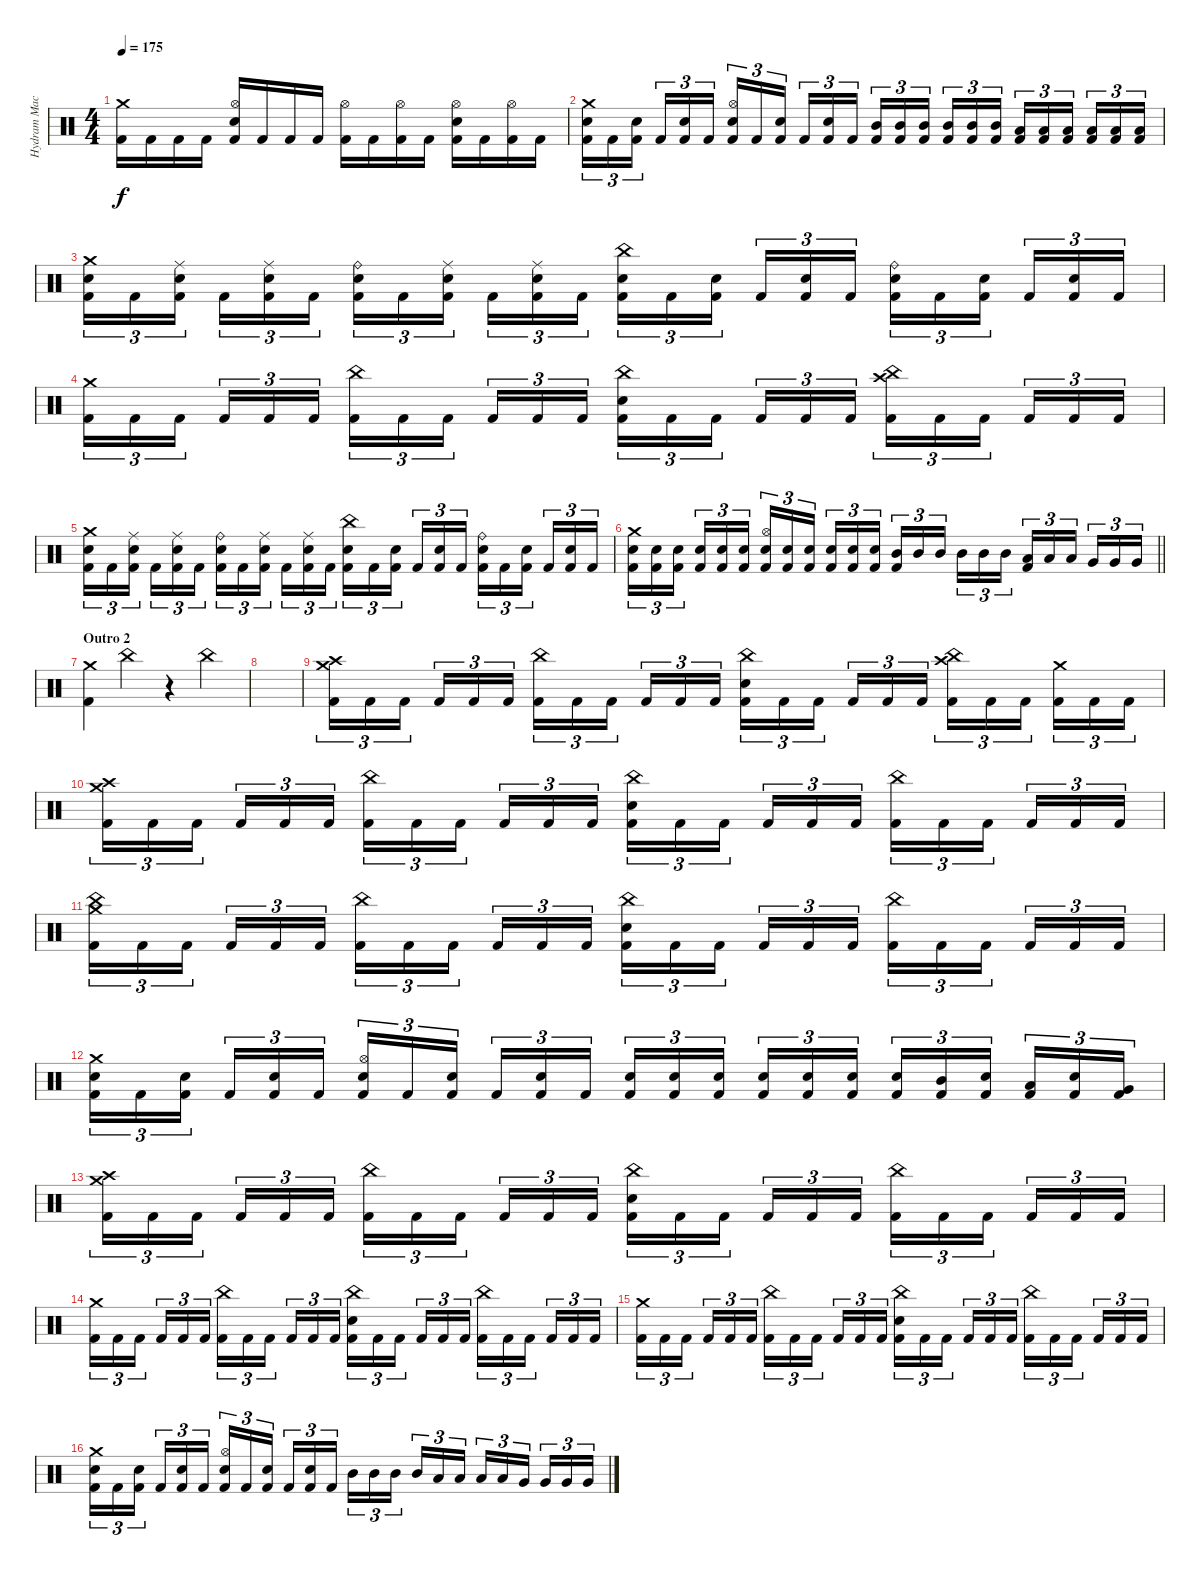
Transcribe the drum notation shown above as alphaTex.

\track ("Hydram Machine" "Hydram Mac") {instrument percussion}
\staff {score}
\articulation defaults
\ts (4 4)
\tempo 175
\clef neutral
\ks c
("Crash medium (hit)" "Kick (hit) 2").16{dy f} "Kick (hit) 2".16 "Kick (hit) 2".16 "Kick (hit) 2".16 ("Hi-Hat (open)" "Electric Snare (hit)" "Kick (hit) 2").16 "Kick (hit) 2".16 "Kick (hit) 2".16 "Kick (hit) 2".16 ("Hi-Hat (open)" "Kick (hit) 2").16 "Kick (hit) 2".16 ("Hi-Hat (open)" "Kick (hit) 2").16 "Kick (hit) 2".16 ("Hi-Hat (open)" "Electric Snare (hit)" "Kick (hit) 2").16 "Kick (hit) 2".16 ("Hi-Hat (open)" "Kick (hit) 2").16 "Kick (hit) 2".16 |
("Crash medium (hit)" "Electric Snare (hit)" "Kick (hit) 2").16{tu (3 2)} "Kick (hit) 2".16{tu (3 2)} ("Electric Snare (hit)" "Kick (hit) 2").16{tu (3 2) beam splitsecondary} "Kick (hit) 2".16{tu (3 2)} ("Electric Snare (hit)" "Kick (hit) 2").16{tu (3 2)} "Kick (hit) 2".16{tu (3 2)} ("Hi-Hat (open)" "Electric Snare (hit)" "Kick (hit) 2").16{tu (3 2)} "Kick (hit) 2".16{tu (3 2)} ("Electric Snare (hit)" "Kick (hit) 2").16{tu (3 2) beam splitsecondary} "Kick (hit) 2".16{tu (3 2)} ("Electric Snare (hit)" "Kick (hit) 2").16{tu (3 2)} "Kick (hit) 2".16{tu (3 2)} ("Mid Tom (hit)" "Kick (hit) 2").16{tu (3 2)} ("Mid Tom (hit)" "Kick (hit) 2").16{tu (3 2)} ("Mid Tom (hit)" "Kick (hit) 2").16{tu (3 2) beam splitsecondary} ("Mid Tom (hit)" "Kick (hit) 2").16{tu (3 2)} ("Mid Tom (hit)" "Kick (hit) 2").16{tu (3 2)} ("Mid Tom (hit)" "Kick (hit) 2").16{tu (3 2)} ("Low Tom (hit)" "Kick (hit) 2").16{tu (3 2)} ("Low Tom (hit)" "Kick (hit) 2").16{tu (3 2)} ("Low Tom (hit)" "Kick (hit) 2").16{tu (3 2) beam splitsecondary} ("Low Tom (hit)" "Kick (hit) 2").16{tu (3 2)} ("Low Tom (hit)" "Kick (hit) 2").16{tu (3 2)} ("Low Tom (hit)" "Kick (hit) 2").16{tu (3 2)} |
("Crash medium (hit)" "Electric Snare (hit)" "Kick (hit) 2").16{tu (3 2)} "Kick (hit) 2".16{tu (3 2)} ("Ride (middle)" "Electric Snare (hit)" "Kick (hit) 2").16{tu (3 2) beam splitsecondary} "Kick (hit) 2".16{tu (3 2)} ("Ride (middle)" "Electric Snare (hit)" "Kick (hit) 2").16{tu (3 2)} "Kick (hit) 2".16{tu (3 2)} ("Ride (bell)" "Electric Snare (hit)" "Kick (hit) 2").16{tu (3 2)} "Kick (hit) 2".16{tu (3 2)} ("Ride (middle)" "Electric Snare (hit)" "Kick (hit) 2").16{tu (3 2) beam splitsecondary} "Kick (hit) 2".16{tu (3 2)} ("Ride (middle)" "Electric Snare (hit)" "Kick (hit) 2").16{tu (3 2)} "Kick (hit) 2".16{tu (3 2)} ("China (hit)" "Electric Snare (hit)" "Kick (hit) 2").16{tu (3 2)} "Kick (hit) 2".16{tu (3 2)} ("Electric Snare (hit)" "Kick (hit) 2").16{tu (3 2) beam splitsecondary} "Kick (hit) 2".16{tu (3 2)} ("Electric Snare (hit)" "Kick (hit) 2").16{tu (3 2)} "Kick (hit) 2".16{tu (3 2)} ("Ride (bell)" "Electric Snare (hit)" "Kick (hit) 2").16{tu (3 2)} "Kick (hit) 2".16{tu (3 2)} ("Electric Snare (hit)" "Kick (hit) 2").16{tu (3 2) beam splitsecondary} "Kick (hit) 2".16{tu (3 2)} ("Electric Snare (hit)" "Kick (hit) 2").16{tu (3 2)} "Kick (hit) 2".16{tu (3 2)} |
("Crash medium (hit)" "Kick (hit) 2").16{tu (3 2)} "Kick (hit) 2".16{tu (3 2)} "Kick (hit) 2".16{tu (3 2) beam splitsecondary} "Kick (hit) 2".16{tu (3 2)} "Kick (hit) 2".16{tu (3 2)} "Kick (hit) 2".16{tu (3 2)} ("China (hit)" "Kick (hit) 2").16{tu (3 2)} "Kick (hit) 2".16{tu (3 2)} "Kick (hit) 2".16{tu (3 2) beam splitsecondary} "Kick (hit) 2".16{tu (3 2)} "Kick (hit) 2".16{tu (3 2)} "Kick (hit) 2".16{tu (3 2)} ("China (hit)" "Electric Snare (hit)" "Kick (hit) 2").16{tu (3 2)} "Kick (hit) 2".16{tu (3 2)} "Kick (hit) 2".16{tu (3 2) beam splitsecondary} "Kick (hit) 2".16{tu (3 2)} "Kick (hit) 2".16{tu (3 2)} "Kick (hit) 2".16{tu (3 2)} ("China (hit)" "Crash high (hit)" "Kick (hit) 2").16{tu (3 2)} "Kick (hit) 2".16{tu (3 2)} "Kick (hit) 2".16{tu (3 2) beam splitsecondary} "Kick (hit) 2".16{tu (3 2)} "Kick (hit) 2".16{tu (3 2)} "Kick (hit) 2".16{tu (3 2)} |
("Crash medium (hit)" "Electric Snare (hit)" "Kick (hit) 2").16{tu (3 2)} "Kick (hit) 2".16{tu (3 2)} ("Ride (middle)" "Electric Snare (hit)" "Kick (hit) 2").16{tu (3 2) beam splitsecondary} "Kick (hit) 2".16{tu (3 2)} ("Ride (middle)" "Electric Snare (hit)" "Kick (hit) 2").16{tu (3 2)} "Kick (hit) 2".16{tu (3 2)} ("Ride (bell)" "Electric Snare (hit)" "Kick (hit) 2").16{tu (3 2)} "Kick (hit) 2".16{tu (3 2)} ("Ride (middle)" "Electric Snare (hit)" "Kick (hit) 2").16{tu (3 2) beam splitsecondary} "Kick (hit) 2".16{tu (3 2)} ("Ride (middle)" "Electric Snare (hit)" "Kick (hit) 2").16{tu (3 2)} "Kick (hit) 2".16{tu (3 2)} ("China (hit)" "Electric Snare (hit)" "Kick (hit) 2").16{tu (3 2)} "Kick (hit) 2".16{tu (3 2)} ("Electric Snare (hit)" "Kick (hit) 2").16{tu (3 2) beam splitsecondary} "Kick (hit) 2".16{tu (3 2)} ("Electric Snare (hit)" "Kick (hit) 2").16{tu (3 2)} "Kick (hit) 2".16{tu (3 2)} ("Ride (bell)" "Electric Snare (hit)" "Kick (hit) 2").16{tu (3 2)} "Kick (hit) 2".16{tu (3 2)} ("Electric Snare (hit)" "Kick (hit) 2").16{tu (3 2) beam splitsecondary} "Kick (hit) 2".16{tu (3 2)} ("Electric Snare (hit)" "Kick (hit) 2").16{tu (3 2)} "Kick (hit) 2".16{tu (3 2)} |
\barLineRight lightlight
("Crash medium (hit)" "Electric Snare (hit)" "Kick (hit) 2").16{tu (3 2)} ("Electric Snare (hit)" "Kick (hit) 2").16{tu (3 2)} ("Electric Snare (hit)" "Kick (hit) 2").16{tu (3 2) beam splitsecondary} ("Electric Snare (hit)" "Kick (hit) 2").16{tu (3 2)} ("Electric Snare (hit)" "Kick (hit) 2").16{tu (3 2)} ("Electric Snare (hit)" "Kick (hit) 2").16{tu (3 2)} ("Hi-Hat (open)" "Electric Snare (hit)" "Kick (hit) 2").16{tu (3 2)} ("Electric Snare (hit)" "Kick (hit) 2").16{tu (3 2)} ("Electric Snare (hit)" "Kick (hit) 2").16{tu (3 2) beam splitsecondary} ("Electric Snare (hit)" "Kick (hit) 2").16{tu (3 2)} ("Electric Snare (hit)" "Kick (hit) 2").16{tu (3 2)} ("Electric Snare (hit)" "Kick (hit) 2").16{tu (3 2)} ("Mid Tom (hit)" "Kick (hit) 2").16{tu (3 2)} "Mid Tom (hit)".16{tu (3 2)} "Mid Tom (hit)".16{tu (3 2) beam splitsecondary} "Mid Tom (hit)".16{tu (3 2)} "Mid Tom (hit)".16{tu (3 2)} "Mid Tom (hit)".16{tu (3 2)} ("Low Tom (hit)" "Kick (hit) 2").16{tu (3 2)} "Low Tom (hit)".16{tu (3 2)} "Low Tom (hit)".16{tu (3 2) beam splitsecondary} "Very Low Tom (hit)".16{tu (3 2)} "Very Low Tom (hit)".16{tu (3 2)} "Very Low Tom (hit)".16{tu (3 2)} |
\section ("" "Outro 2")
("Crash medium (hit)" "Kick (hit) 2").4 "China (hit)".4 r.4 "China (hit)".4 |
|
("Crash medium (hit)" "Crash high (hit)" "Kick (hit) 2").16{tu (3 2)} "Kick (hit) 2".16{tu (3 2)} "Kick (hit) 2".16{tu (3 2) beam splitsecondary} "Kick (hit) 2".16{tu (3 2)} "Kick (hit) 2".16{tu (3 2)} "Kick (hit) 2".16{tu (3 2)} ("China (hit)" "Kick (hit) 2").16{tu (3 2)} "Kick (hit) 2".16{tu (3 2)} "Kick (hit) 2".16{tu (3 2) beam splitsecondary} "Kick (hit) 2".16{tu (3 2)} "Kick (hit) 2".16{tu (3 2)} "Kick (hit) 2".16{tu (3 2)} ("China (hit)" "Electric Snare (hit)" "Kick (hit) 2").16{tu (3 2)} "Kick (hit) 2".16{tu (3 2)} "Kick (hit) 2".16{tu (3 2) beam splitsecondary} "Kick (hit) 2".16{tu (3 2)} "Kick (hit) 2".16{tu (3 2)} "Kick (hit) 2".16{tu (3 2)} ("China (hit)" "Crash high (hit)" "Kick (hit) 2").16{tu (3 2)} "Kick (hit) 2".16{tu (3 2)} "Kick (hit) 2".16{tu (3 2) beam splitsecondary} ("Crash medium (hit)" "Kick (hit) 2").16{tu (3 2)} "Kick (hit) 2".16{tu (3 2)} "Kick (hit) 2".16{tu (3 2)} |
("Crash medium (hit)" "Crash high (hit)" "Kick (hit) 2").16{tu (3 2)} "Kick (hit) 2".16{tu (3 2)} "Kick (hit) 2".16{tu (3 2) beam splitsecondary} "Kick (hit) 2".16{tu (3 2)} "Kick (hit) 2".16{tu (3 2)} "Kick (hit) 2".16{tu (3 2)} ("China (hit)" "Kick (hit) 2").16{tu (3 2)} "Kick (hit) 2".16{tu (3 2)} "Kick (hit) 2".16{tu (3 2) beam splitsecondary} "Kick (hit) 2".16{tu (3 2)} "Kick (hit) 2".16{tu (3 2)} "Kick (hit) 2".16{tu (3 2)} ("China (hit)" "Electric Snare (hit)" "Kick (hit) 2").16{tu (3 2)} "Kick (hit) 2".16{tu (3 2)} "Kick (hit) 2".16{tu (3 2) beam splitsecondary} "Kick (hit) 2".16{tu (3 2)} "Kick (hit) 2".16{tu (3 2)} "Kick (hit) 2".16{tu (3 2)} ("China (hit)" "Kick (hit) 2").16{tu (3 2)} "Kick (hit) 2".16{tu (3 2)} "Kick (hit) 2".16{tu (3 2) beam splitsecondary} "Kick (hit) 2".16{tu (3 2)} "Kick (hit) 2".16{tu (3 2)} "Kick (hit) 2".16{tu (3 2)} |
("Crash medium (hit)" "China (hit)" "Kick (hit) 2").16{tu (3 2)} "Kick (hit) 2".16{tu (3 2)} "Kick (hit) 2".16{tu (3 2) beam splitsecondary} "Kick (hit) 2".16{tu (3 2)} "Kick (hit) 2".16{tu (3 2)} "Kick (hit) 2".16{tu (3 2)} ("China (hit)" "Kick (hit) 2").16{tu (3 2)} "Kick (hit) 2".16{tu (3 2)} "Kick (hit) 2".16{tu (3 2) beam splitsecondary} "Kick (hit) 2".16{tu (3 2)} "Kick (hit) 2".16{tu (3 2)} "Kick (hit) 2".16{tu (3 2)} ("China (hit)" "Electric Snare (hit)" "Kick (hit) 2").16{tu (3 2)} "Kick (hit) 2".16{tu (3 2)} "Kick (hit) 2".16{tu (3 2) beam splitsecondary} "Kick (hit) 2".16{tu (3 2)} "Kick (hit) 2".16{tu (3 2)} "Kick (hit) 2".16{tu (3 2)} ("China (hit)" "Kick (hit) 2").16{tu (3 2)} "Kick (hit) 2".16{tu (3 2)} "Kick (hit) 2".16{tu (3 2) beam splitsecondary} "Kick (hit) 2".16{tu (3 2)} "Kick (hit) 2".16{tu (3 2)} "Kick (hit) 2".16{tu (3 2)} |
("Crash medium (hit)" "Electric Snare (hit)" "Kick (hit) 2").16{tu (3 2)} "Kick (hit) 2".16{tu (3 2)} ("Electric Snare (hit)" "Kick (hit) 2").16{tu (3 2) beam splitsecondary} "Kick (hit) 2".16{tu (3 2)} ("Electric Snare (hit)" "Kick (hit) 2").16{tu (3 2)} "Kick (hit) 2".16{tu (3 2)} ("Hi-Hat (open)" "Electric Snare (hit)" "Kick (hit) 2").16{tu (3 2)} "Kick (hit) 2".16{tu (3 2)} ("Electric Snare (hit)" "Kick (hit) 2").16{tu (3 2) beam splitsecondary} "Kick (hit) 2".16{tu (3 2)} ("Electric Snare (hit)" "Kick (hit) 2").16{tu (3 2)} "Kick (hit) 2".16{tu (3 2)} ("Electric Snare (hit)" "Kick (hit) 2").16{tu (3 2)} ("Electric Snare (hit)" "Kick (hit) 2").16{tu (3 2)} ("Electric Snare (hit)" "Kick (hit) 2").16{tu (3 2) beam splitsecondary} ("Electric Snare (hit)" "Kick (hit) 2").16{tu (3 2)} ("Electric Snare (hit)" "Kick (hit) 2").16{tu (3 2)} ("Electric Snare (hit)" "Kick (hit) 2").16{tu (3 2)} ("Electric Snare (hit)" "Kick (hit) 2").16{tu (3 2)} ("Mid Tom (hit)" "Kick (hit) 2").16{tu (3 2)} ("Electric Snare (hit)" "Kick (hit) 2").16{tu (3 2) beam splitsecondary} ("Low Tom (hit)" "Kick (hit) 2").16{tu (3 2)} ("Electric Snare (hit)" "Kick (hit) 2").16{tu (3 2)} ("Very Low Tom (hit)" "Kick (hit) 2").16{tu (3 2)} |
("Crash medium (hit)" "Crash high (hit)" "Kick (hit) 2").16{tu (3 2)} "Kick (hit) 2".16{tu (3 2)} "Kick (hit) 2".16{tu (3 2) beam splitsecondary} "Kick (hit) 2".16{tu (3 2)} "Kick (hit) 2".16{tu (3 2)} "Kick (hit) 2".16{tu (3 2)} ("China (hit)" "Kick (hit) 2").16{tu (3 2)} "Kick (hit) 2".16{tu (3 2)} "Kick (hit) 2".16{tu (3 2) beam splitsecondary} "Kick (hit) 2".16{tu (3 2)} "Kick (hit) 2".16{tu (3 2)} "Kick (hit) 2".16{tu (3 2)} ("China (hit)" "Electric Snare (hit)" "Kick (hit) 2").16{tu (3 2)} "Kick (hit) 2".16{tu (3 2)} "Kick (hit) 2".16{tu (3 2) beam splitsecondary} "Kick (hit) 2".16{tu (3 2)} "Kick (hit) 2".16{tu (3 2)} "Kick (hit) 2".16{tu (3 2)} ("China (hit)" "Kick (hit) 2").16{tu (3 2)} "Kick (hit) 2".16{tu (3 2)} "Kick (hit) 2".16{tu (3 2) beam splitsecondary} "Kick (hit) 2".16{tu (3 2)} "Kick (hit) 2".16{tu (3 2)} "Kick (hit) 2".16{tu (3 2)} |
("Crash medium (hit)" "Kick (hit) 2").16{tu (3 2)} "Kick (hit) 2".16{tu (3 2)} "Kick (hit) 2".16{tu (3 2) beam splitsecondary} "Kick (hit) 2".16{tu (3 2)} "Kick (hit) 2".16{tu (3 2)} "Kick (hit) 2".16{tu (3 2)} ("China (hit)" "Kick (hit) 2").16{tu (3 2)} "Kick (hit) 2".16{tu (3 2)} "Kick (hit) 2".16{tu (3 2) beam splitsecondary} "Kick (hit) 2".16{tu (3 2)} "Kick (hit) 2".16{tu (3 2)} "Kick (hit) 2".16{tu (3 2)} ("China (hit)" "Electric Snare (hit)" "Kick (hit) 2").16{tu (3 2)} "Kick (hit) 2".16{tu (3 2)} "Kick (hit) 2".16{tu (3 2) beam splitsecondary} "Kick (hit) 2".16{tu (3 2)} "Kick (hit) 2".16{tu (3 2)} "Kick (hit) 2".16{tu (3 2)} ("China (hit)" "Kick (hit) 2").16{tu (3 2)} "Kick (hit) 2".16{tu (3 2)} "Kick (hit) 2".16{tu (3 2) beam splitsecondary} "Kick (hit) 2".16{tu (3 2)} "Kick (hit) 2".16{tu (3 2)} "Kick (hit) 2".16{tu (3 2)} |
("Crash medium (hit)" "Kick (hit) 2").16{tu (3 2)} "Kick (hit) 2".16{tu (3 2)} "Kick (hit) 2".16{tu (3 2) beam splitsecondary} "Kick (hit) 2".16{tu (3 2)} "Kick (hit) 2".16{tu (3 2)} "Kick (hit) 2".16{tu (3 2)} ("China (hit)" "Kick (hit) 2").16{tu (3 2)} "Kick (hit) 2".16{tu (3 2)} "Kick (hit) 2".16{tu (3 2) beam splitsecondary} "Kick (hit) 2".16{tu (3 2)} "Kick (hit) 2".16{tu (3 2)} "Kick (hit) 2".16{tu (3 2)} ("China (hit)" "Electric Snare (hit)" "Kick (hit) 2").16{tu (3 2)} "Kick (hit) 2".16{tu (3 2)} "Kick (hit) 2".16{tu (3 2) beam splitsecondary} "Kick (hit) 2".16{tu (3 2)} "Kick (hit) 2".16{tu (3 2)} "Kick (hit) 2".16{tu (3 2)} ("China (hit)" "Kick (hit) 2").16{tu (3 2)} "Kick (hit) 2".16{tu (3 2)} "Kick (hit) 2".16{tu (3 2) beam splitsecondary} "Kick (hit) 2".16{tu (3 2)} "Kick (hit) 2".16{tu (3 2)} "Kick (hit) 2".16{tu (3 2)} |
("Crash medium (hit)" "Electric Snare (hit)" "Kick (hit) 2").16{tu (3 2)} "Kick (hit) 2".16{tu (3 2)} ("Electric Snare (hit)" "Kick (hit) 2").16{tu (3 2) beam splitsecondary} "Kick (hit) 2".16{tu (3 2)} ("Electric Snare (hit)" "Kick (hit) 2").16{tu (3 2)} "Kick (hit) 2".16{tu (3 2)} ("Hi-Hat (open)" "Electric Snare (hit)" "Kick (hit) 2").16{tu (3 2)} "Kick (hit) 2".16{tu (3 2)} ("Electric Snare (hit)" "Kick (hit) 2").16{tu (3 2) beam splitsecondary} "Kick (hit) 2".16{tu (3 2)} ("Electric Snare (hit)" "Kick (hit) 2").16{tu (3 2)} "Kick (hit) 2".16{tu (3 2)} "Mid Tom (hit)".16{tu (3 2)} "Mid Tom (hit)".16{tu (3 2)} "Mid Tom (hit)".16{tu (3 2) beam splitsecondary} "Mid Tom (hit)".16{tu (3 2)} "Low Tom (hit)".16{tu (3 2)} "Low Tom (hit)".16{tu (3 2)} "Low Tom (hit)".16{tu (3 2)} "Low Tom (hit)".16{tu (3 2)} "Very Low Tom (hit)".16{tu (3 2) beam splitsecondary} "Very Low Tom (hit)".16{tu (3 2)} "Very Low Tom (hit)".16{tu (3 2)} "Very Low Tom (hit)".16{tu (3 2)}
